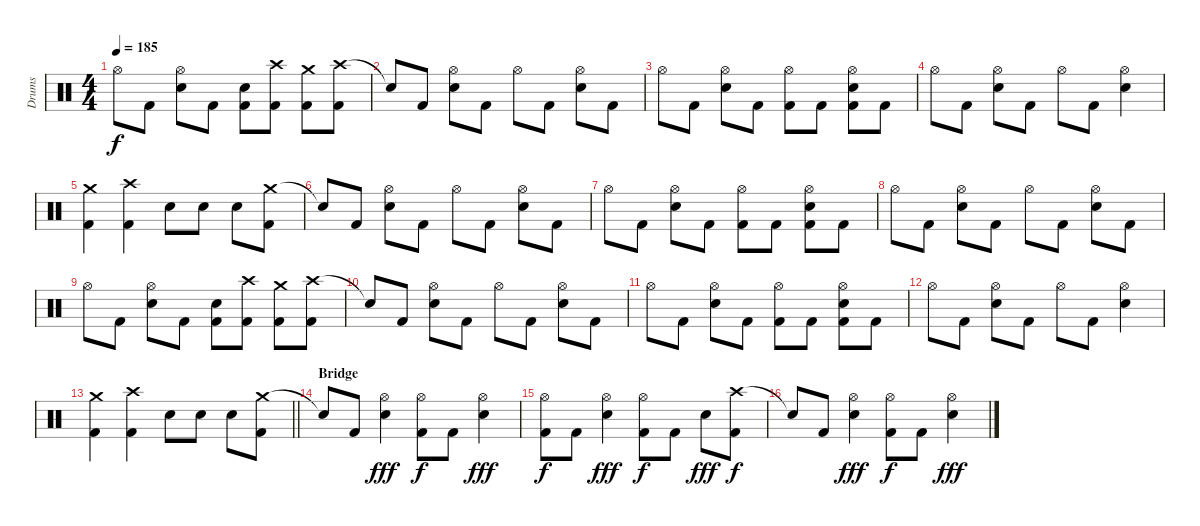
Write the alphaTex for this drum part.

\track ("Drums" "Drums") {instrument percussion}
\staff {score}
\articulation defaults
\ts (4 4)
\tempo 185
\clef neutral
\ks c "Hi-Hat (open)".8{dy f} "Kick (hit) 2".8
("Hi-Hat (open)" "Electric Snare (hit)").8 "Kick (hit) 2".8 ("Electric Snare (hit)" "Kick (hit) 2").8 ("Crash high (hit)" "Kick (hit) 2").8 ("Crash medium (hit)" "Kick (hit) 2").8 ("Crash high (hit)" "Kick (hit) 2").8 |
"Snare (hit)"{t}.8 "Kick (hit) 2".8 ("Hi-Hat (open)" "Electric Snare (hit)").8 "Kick (hit) 2".8 "Hi-Hat (open)".8 "Kick (hit) 2".8 ("Hi-Hat (open)" "Electric Snare (hit)").8 "Kick (hit) 2".8 |
"Hi-Hat (open)".8 "Kick (hit) 2".8 ("Hi-Hat (open)" "Electric Snare (hit)").8 "Kick (hit) 2".8 ("Hi-Hat (open)" "Kick (hit) 2").8 "Kick (hit) 2".8 ("Hi-Hat (open)" "Electric Snare (hit)" "Kick (hit) 2").8 "Kick (hit) 2".8 |
"Hi-Hat (open)".8 "Kick (hit) 2".8 ("Hi-Hat (open)" "Electric Snare (hit)").8 "Kick (hit) 2".8 "Hi-Hat (open)".8 "Kick (hit) 2".8 ("Hi-Hat (open)" "Electric Snare (hit)").4 |
("Crash medium (hit)" "Kick (hit) 2").4 ("Crash high (hit)" "Kick (hit) 2").4 "Electric Snare (hit)".8 "Electric Snare (hit)".8 "Electric Snare (hit)".8 ("Crash medium (hit)" "Kick (hit) 2").8 |
"Snare (hit)"{t}.8 "Kick (hit) 2".8 ("Hi-Hat (open)" "Electric Snare (hit)").8 "Kick (hit) 2".8 "Hi-Hat (open)".8 "Kick (hit) 2".8 ("Hi-Hat (open)" "Electric Snare (hit)").8 "Kick (hit) 2".8 |
"Hi-Hat (open)".8 "Kick (hit) 2".8 ("Hi-Hat (open)" "Electric Snare (hit)").8 "Kick (hit) 2".8 ("Hi-Hat (open)" "Kick (hit) 2").8 "Kick (hit) 2".8 ("Hi-Hat (open)" "Electric Snare (hit)" "Kick (hit) 2").8 "Kick (hit) 2".8 |
"Hi-Hat (open)".8 "Kick (hit) 2".8 ("Hi-Hat (open)" "Electric Snare (hit)").8 "Kick (hit) 2".8 "Hi-Hat (open)".8 "Kick (hit) 2".8 ("Hi-Hat (open)" "Electric Snare (hit)").8 "Kick (hit) 2".8 |
"Hi-Hat (open)".8 "Kick (hit) 2".8 ("Hi-Hat (open)" "Electric Snare (hit)").8 "Kick (hit) 2".8 ("Electric Snare (hit)" "Kick (hit) 2").8 ("Crash high (hit)" "Kick (hit) 2").8 ("Crash medium (hit)" "Kick (hit) 2").8 ("Crash high (hit)" "Kick (hit) 2").8 |
"Snare (hit)"{t}.8 "Kick (hit) 2".8 ("Hi-Hat (open)" "Electric Snare (hit)").8 "Kick (hit) 2".8 "Hi-Hat (open)".8 "Kick (hit) 2".8 ("Hi-Hat (open)" "Electric Snare (hit)").8 "Kick (hit) 2".8 |
"Hi-Hat (open)".8 "Kick (hit) 2".8 ("Hi-Hat (open)" "Electric Snare (hit)").8 "Kick (hit) 2".8 ("Hi-Hat (open)" "Kick (hit) 2").8 "Kick (hit) 2".8 ("Hi-Hat (open)" "Electric Snare (hit)" "Kick (hit) 2").8 "Kick (hit) 2".8 |
"Hi-Hat (open)".8 "Kick (hit) 2".8 ("Hi-Hat (open)" "Electric Snare (hit)").8 "Kick (hit) 2".8 "Hi-Hat (open)".8 "Kick (hit) 2".8 ("Hi-Hat (open)" "Electric Snare (hit)").4 |
\barLineRight lightlight
("Crash medium (hit)" "Kick (hit) 2").4 ("Crash high (hit)" "Kick (hit) 2").4 "Electric Snare (hit)".8 "Electric Snare (hit)".8 "Electric Snare (hit)".8 ("Crash medium (hit)" "Kick (hit) 2").8 |
\section ("" "Bridge")
"Snare (hit)"{t}.8 "Kick (hit) 2".8 ("Hi-Hat (open)" "Electric Snare (hit)").4{dy fff} ("Hi-Hat (open)" "Kick (hit) 2").8{dy f} "Kick (hit) 2".8 ("Hi-Hat (open)" "Electric Snare (hit)").4{dy fff} |
("Hi-Hat (open)" "Kick (hit) 2").8{dy f} "Kick (hit) 2".8 ("Hi-Hat (open)" "Electric Snare (hit)").4{dy fff} ("Hi-Hat (open)" "Kick (hit) 2").8{dy f} "Kick (hit) 2".8 "Electric Snare (hit)".8{dy fff} ("Crash high (hit)" "Kick (hit) 2").8{dy f} |
"Snare (hit)"{t}.8 "Kick (hit) 2".8 ("Hi-Hat (open)" "Electric Snare (hit)").4{dy fff} ("Hi-Hat (open)" "Kick (hit) 2").8{dy f} "Kick (hit) 2".8 ("Hi-Hat (open)" "Electric Snare (hit)").4{dy fff}
